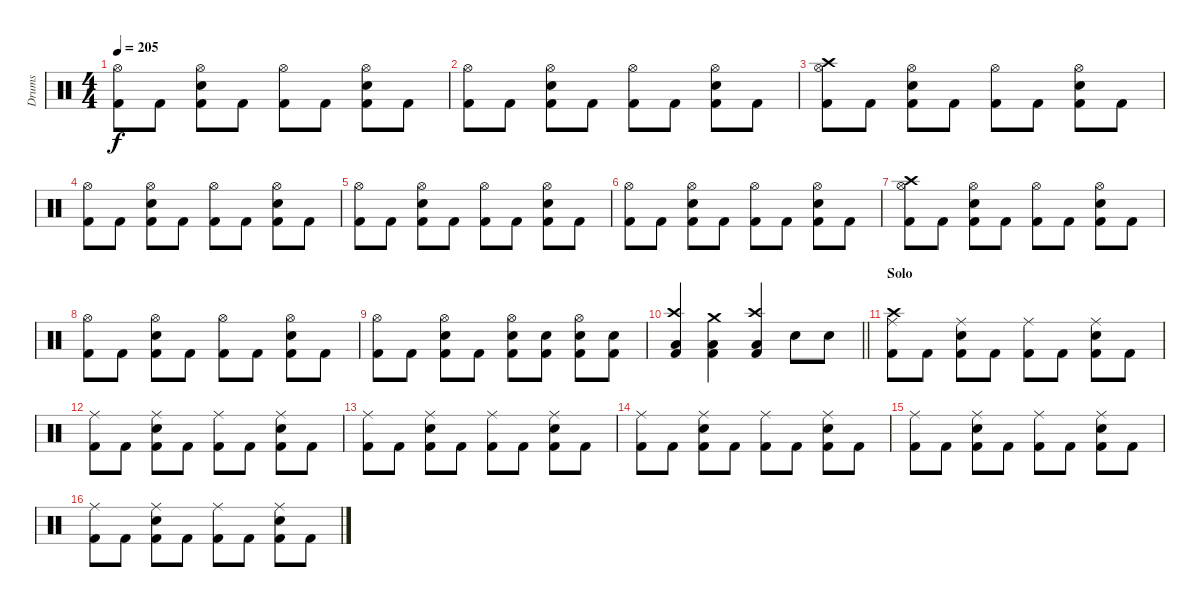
\track ("Drums" "Drums") {instrument percussion}
\staff {score}
\articulation defaults
\ts (4 4)
\tempo 205
\clef neutral
\ks c
("Hi-Hat (open)" "Kick (hit) 2").8{dy f} "Kick (hit) 2".8 ("Hi-Hat (open)" "Snare (hit) 2" "Kick (hit) 2").8 "Kick (hit) 2".8 ("Hi-Hat (open)" "Kick (hit) 2").8 "Kick (hit) 2".8 ("Hi-Hat (open)" "Snare (hit) 2" "Kick (hit) 2").8 "Kick (hit) 2".8 |
("Hi-Hat (open)" "Kick (hit) 2").8 "Kick (hit) 2".8 ("Hi-Hat (open)" "Snare (hit) 2" "Kick (hit) 2").8 "Kick (hit) 2".8 ("Hi-Hat (open)" "Kick (hit) 2").8 "Kick (hit) 2".8 ("Hi-Hat (open)" "Snare (hit) 2" "Kick (hit) 2").8 "Kick (hit) 2".8 |
("Crash high (hit)" "Hi-Hat (open)" "Kick (hit) 2").8 "Kick (hit) 2".8 ("Hi-Hat (open)" "Snare (hit) 2" "Kick (hit) 2").8 "Kick (hit) 2".8 ("Hi-Hat (open)" "Kick (hit) 2").8 "Kick (hit) 2".8 ("Hi-Hat (open)" "Snare (hit) 2" "Kick (hit) 2").8 "Kick (hit) 2".8 |
("Hi-Hat (open)" "Kick (hit) 2").8 "Kick (hit) 2".8 ("Hi-Hat (open)" "Snare (hit) 2" "Kick (hit) 2").8 "Kick (hit) 2".8 ("Hi-Hat (open)" "Kick (hit) 2").8 "Kick (hit) 2".8 ("Hi-Hat (open)" "Snare (hit) 2" "Kick (hit) 2").8 "Kick (hit) 2".8 |
("Hi-Hat (open)" "Kick (hit) 2").8 "Kick (hit) 2".8 ("Hi-Hat (open)" "Snare (hit) 2" "Kick (hit) 2").8 "Kick (hit) 2".8 ("Hi-Hat (open)" "Kick (hit) 2").8 "Kick (hit) 2".8 ("Hi-Hat (open)" "Snare (hit) 2" "Kick (hit) 2").8 "Kick (hit) 2".8 |
("Hi-Hat (open)" "Kick (hit) 2").8 "Kick (hit) 2".8 ("Hi-Hat (open)" "Snare (hit) 2" "Kick (hit) 2").8 "Kick (hit) 2".8 ("Hi-Hat (open)" "Kick (hit) 2").8 "Kick (hit) 2".8 ("Hi-Hat (open)" "Snare (hit) 2" "Kick (hit) 2").8 "Kick (hit) 2".8 |
("Crash high (hit)" "Hi-Hat (open)" "Kick (hit) 2").8 "Kick (hit) 2".8 ("Hi-Hat (open)" "Snare (hit) 2" "Kick (hit) 2").8 "Kick (hit) 2".8 ("Hi-Hat (open)" "Kick (hit) 2").8 "Kick (hit) 2".8 ("Hi-Hat (open)" "Snare (hit) 2" "Kick (hit) 2").8 "Kick (hit) 2".8 |
("Hi-Hat (open)" "Kick (hit) 2").8 "Kick (hit) 2".8 ("Hi-Hat (open)" "Snare (hit) 2" "Kick (hit) 2").8 "Kick (hit) 2".8 ("Hi-Hat (open)" "Kick (hit) 2").8 "Kick (hit) 2".8 ("Hi-Hat (open)" "Snare (hit) 2" "Kick (hit) 2").8 "Kick (hit) 2".8 |
("Hi-Hat (open)" "Kick (hit) 2").8 "Kick (hit) 2".8 ("Hi-Hat (open)" "Snare (hit) 2" "Kick (hit) 2").8 "Kick (hit) 2".8 ("Hi-Hat (open)" "Snare (hit) 2" "Kick (hit) 2").8 ("Snare (hit) 2" "Kick (hit) 2").8 ("Hi-Hat (open)" "Snare (hit) 2" "Kick (hit) 2").8 ("Snare (hit) 2" "Kick (hit) 2").8 |
\barLineRight lightlight
("Crash high (hit)" "Low Floor Tom (hit)" "Kick (hit) 2").4 ("Crash medium (hit)" "Low Floor Tom (hit)" "Kick (hit) 2").4 ("Crash high (hit)" "Low Floor Tom (hit)" "Kick (hit) 2").4 "Snare (hit) 2".8 "Snare (hit) 2".8 |
\section ("" "Solo")
("Crash high (hit)" "Ride (middle)" "Kick (hit) 2").8 "Kick (hit) 2".8 ("Ride (middle)" "Snare (hit) 2" "Kick (hit) 2").8 "Kick (hit) 2".8 ("Ride (middle)" "Kick (hit) 2").8 "Kick (hit) 2".8 ("Ride (middle)" "Snare (hit) 2" "Kick (hit) 2").8 "Kick (hit) 2".8 |
("Ride (middle)" "Kick (hit) 2").8 "Kick (hit) 2".8 ("Ride (middle)" "Snare (hit) 2" "Kick (hit) 2").8 "Kick (hit) 2".8 ("Ride (middle)" "Kick (hit) 2").8 "Kick (hit) 2".8 ("Ride (middle)" "Snare (hit) 2" "Kick (hit) 2").8 "Kick (hit) 2".8 |
("Ride (middle)" "Kick (hit) 2").8 "Kick (hit) 2".8 ("Ride (middle)" "Snare (hit) 2" "Kick (hit) 2").8 "Kick (hit) 2".8 ("Ride (middle)" "Kick (hit) 2").8 "Kick (hit) 2".8 ("Ride (middle)" "Snare (hit) 2" "Kick (hit) 2").8 "Kick (hit) 2".8 |
("Ride (middle)" "Kick (hit) 2").8 "Kick (hit) 2".8 ("Ride (middle)" "Snare (hit) 2" "Kick (hit) 2").8 "Kick (hit) 2".8 ("Ride (middle)" "Kick (hit) 2").8 "Kick (hit) 2".8 ("Ride (middle)" "Snare (hit) 2" "Kick (hit) 2").8 "Kick (hit) 2".8 |
("Ride (middle)" "Kick (hit) 2").8 "Kick (hit) 2".8 ("Ride (middle)" "Snare (hit) 2" "Kick (hit) 2").8 "Kick (hit) 2".8 ("Ride (middle)" "Kick (hit) 2").8 "Kick (hit) 2".8 ("Ride (middle)" "Snare (hit) 2" "Kick (hit) 2").8 "Kick (hit) 2".8 |
("Ride (middle)" "Kick (hit) 2").8 "Kick (hit) 2".8 ("Ride (middle)" "Snare (hit) 2" "Kick (hit) 2").8 "Kick (hit) 2".8 ("Ride (middle)" "Kick (hit) 2").8 "Kick (hit) 2".8 ("Ride (middle)" "Snare (hit) 2" "Kick (hit) 2").8 "Kick (hit) 2".8
